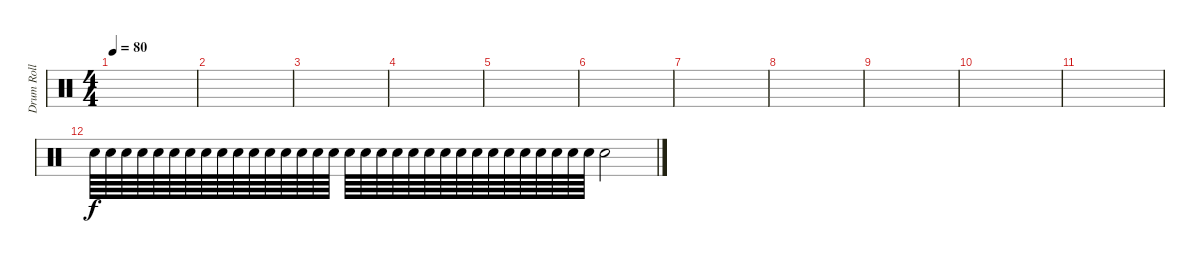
\track ("Drum Roll" "Drum Roll") {instrument percussion}
\staff {score}
\articulation defaults
\ts (4 4)
\tempo 80
\clef neutral
\ks c
|
|
|
|
|
|
|
|
|
|
|
"Snare (hit) 2".64 "Snare (hit) 2".64 "Snare (hit) 2".64 "Snare (hit) 2".64 "Snare (hit) 2".64 "Snare (hit) 2".64 "Snare (hit) 2".64 "Snare (hit) 2".64 "Snare (hit) 2".64 "Snare (hit) 2".64 "Snare (hit) 2".64 "Snare (hit) 2".64 "Snare (hit) 2".64 "Snare (hit) 2".64 "Snare (hit) 2".64 "Snare (hit) 2".64 "Snare (hit) 2".64 "Snare (hit) 2".64 "Snare (hit) 2".64 "Snare (hit) 2".64 "Snare (hit) 2".64 "Snare (hit) 2".64 "Snare (hit) 2".64 "Snare (hit) 2".64 "Snare (hit) 2".64 "Snare (hit) 2".64 "Snare (hit) 2".64 "Snare (hit) 2".64 "Snare (hit) 2".64 "Snare (hit) 2".64 "Snare (hit) 2".64 "Snare (hit) 2".64 "Electric Snare (hit)".2{dy f}
